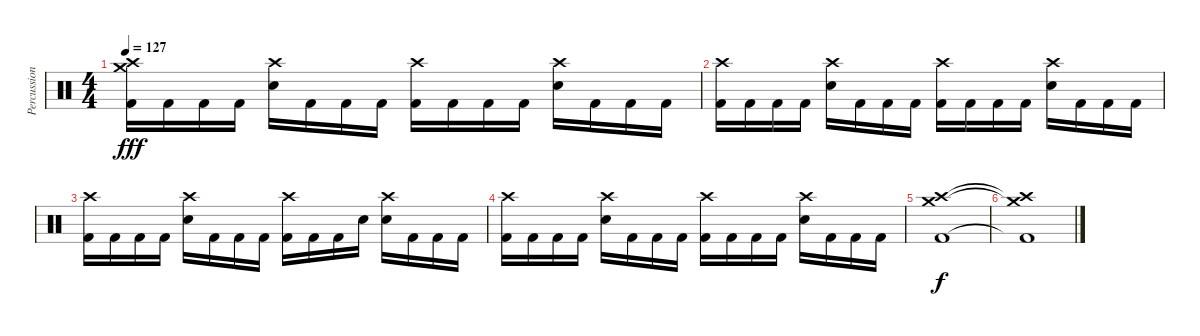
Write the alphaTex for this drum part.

\track ("Percussion" "Percussion") {instrument percussion}
\staff {score}
\articulation defaults
\ts (4 4)
\tempo 127
\clef neutral
\ks c
("Crash high (hit)" "Crash medium (hit)" "Kick (hit) 2").16{dy fff} "Kick (hit) 2".16 "Kick (hit) 2".16 "Kick (hit) 2".16 ("Crash high (hit)" "Snare (hit) 2").16 "Kick (hit) 2".16 "Kick (hit) 2".16 "Kick (hit) 2".16 ("Crash high (hit)" "Kick (hit) 2").16 "Kick (hit) 2".16 "Kick (hit) 2".16 "Kick (hit) 2".16 ("Crash high (hit)" "Snare (hit) 2").16 "Kick (hit) 2".16 "Kick (hit) 2".16 "Kick (hit) 2".16 |
("Crash high (hit)" "Kick (hit) 2").16 "Kick (hit) 2".16 "Kick (hit) 2".16 "Kick (hit) 2".16 ("Crash high (hit)" "Snare (hit) 2").16 "Kick (hit) 2".16 "Kick (hit) 2".16 "Kick (hit) 2".16 ("Crash high (hit)" "Kick (hit) 2").16 "Kick (hit) 2".16 "Kick (hit) 2".16 "Kick (hit) 2".16 ("Crash high (hit)" "Snare (hit) 2").16 "Kick (hit) 2".16 "Kick (hit) 2".16 "Kick (hit) 2".16 |
("Crash high (hit)" "Kick (hit) 2").16 "Kick (hit) 2".16 "Kick (hit) 2".16 "Kick (hit) 2".16 ("Crash high (hit)" "Snare (hit) 2").16 "Kick (hit) 2".16 "Kick (hit) 2".16 "Kick (hit) 2".16 ("Crash high (hit)" "Kick (hit) 2").16 "Kick (hit) 2".16 "Kick (hit) 2".16 "Snare (hit) 2".16 ("Crash high (hit)" "Snare (hit) 2").16 "Kick (hit) 2".16 "Kick (hit) 2".16 "Kick (hit) 2".16 |
("Crash high (hit)" "Kick (hit) 2").16 "Kick (hit) 2".16 "Kick (hit) 2".16 "Kick (hit) 2".16 ("Crash high (hit)" "Snare (hit) 2").16 "Kick (hit) 2".16 "Kick (hit) 2".16 "Kick (hit) 2".16 ("Crash high (hit)" "Kick (hit) 2").16 "Kick (hit) 2".16 "Kick (hit) 2".16 "Kick (hit) 2".16 ("Crash high (hit)" "Snare (hit) 2").16 "Kick (hit) 2".16 "Kick (hit) 2".16 "Kick (hit) 2".16 |
("Crash high (hit)" "Crash medium (hit)" "Kick (hit) 2").1{dy f} |
("Crash high (hit)"{t} "Crash medium (hit)"{t} "Kick (hit) 2"{t}).1
